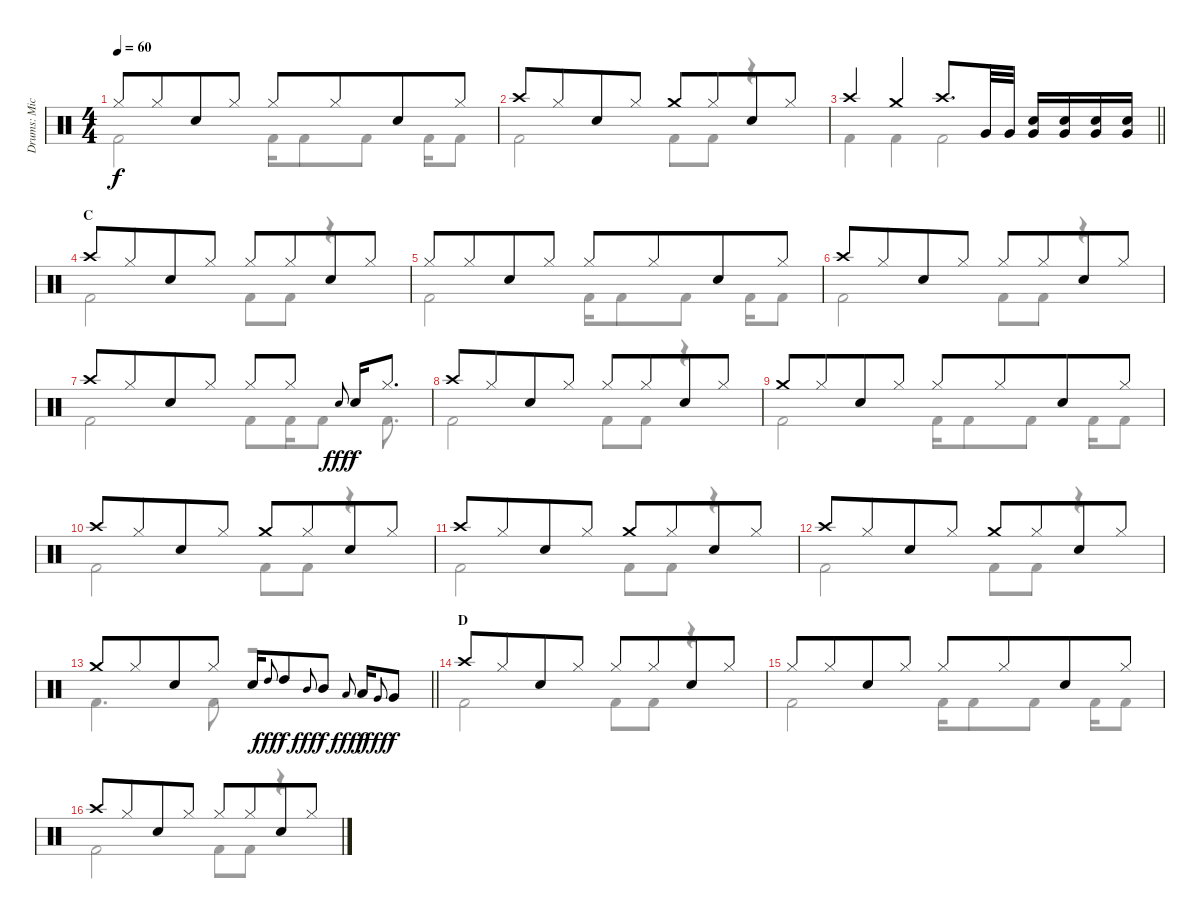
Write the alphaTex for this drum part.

\track ("Drums: Mick" "Drums: Mic") {instrument percussion}
\staff {score}
\articulation defaults
\voice
\ts (4 4)
\tempo 60
\clef neutral
\ks c "Hi-Hat (closed)".8{dy f} "Hi-Hat (closed)".8{beam merge} "Snare (hit) 2".8 "Hi-Hat (closed)".8 "Hi-Hat (closed)".8 "Hi-Hat (closed)".8{beam merge} "Snare (hit) 2".8 "Hi-Hat (closed)".8
|
"Crash high (hit)".8 "Hi-Hat (closed)".8{beam merge} "Snare (hit) 2".8 "Hi-Hat (closed)".8 "Crash medium (hit)".8 "Hi-Hat (closed)".8{beam merge} "Snare (hit) 2".8 "Hi-Hat (closed)".8 |
\barLineRight lightlight "Crash high (hit)".4 "Crash medium (hit)".4{beam merge} "Crash high (hit)".8{d} "Very Low Tom (hit)".32 "Very Low Tom (hit)".32
("Snare (hit) 2" "Very Low Tom (hit)").16 ("Snare (hit) 2" "Very Low Tom (hit)").16 ("Snare (hit) 2" "Very Low Tom (hit)").16 ("Snare (hit) 2" "Very Low Tom (hit)").16 |
\section ("" "C")
"Crash high (hit)".8 "Hi-Hat (closed)".8{beam merge} "Snare (hit) 2".8 "Hi-Hat (closed)".8 "Hi-Hat (closed)".8 "Hi-Hat (closed)".8{beam merge} "Snare (hit) 2".8 "Hi-Hat (closed)".8 |
"Hi-Hat (closed)".8 "Hi-Hat (closed)".8{beam merge} "Snare (hit) 2".8 "Hi-Hat (closed)".8 "Hi-Hat (closed)".8 "Hi-Hat (closed)".8{beam merge} "Snare (hit) 2".8 "Hi-Hat (closed)".8 |
"Crash high (hit)".8 "Hi-Hat (closed)".8{beam merge} "Snare (hit) 2".8 "Hi-Hat (closed)".8 "Hi-Hat (closed)".8 "Hi-Hat (closed)".8{beam merge} "Snare (hit) 2".8 "Hi-Hat (closed)".8 |
"Crash high (hit)".8 "Hi-Hat (closed)".8{beam merge} "Snare (hit) 2".8 "Hi-Hat (closed)".8 "Hi-Hat (closed)".8 "Hi-Hat (closed)".8 "Electric Snare (hit)".8{gr onbeat dy fff beam merge} "Snare (hit) 2".16{dy f} "Hi-Hat (closed)".8{d} |
"Crash high (hit)".8 "Hi-Hat (closed)".8{beam merge} "Snare (hit) 2".8 "Hi-Hat (closed)".8 "Hi-Hat (closed)".8 "Hi-Hat (closed)".8{beam merge} "Snare (hit) 2".8 "Hi-Hat (closed)".8 |
"Crash medium (hit)".8 "Hi-Hat (closed)".8{beam merge} "Snare (hit) 2".8 "Hi-Hat (closed)".8 "Hi-Hat (closed)".8 "Hi-Hat (closed)".8{beam merge} "Snare (hit) 2".8 "Hi-Hat (closed)".8 |
"Crash high (hit)".8 "Hi-Hat (closed)".8{beam merge} "Snare (hit) 2".8 "Hi-Hat (closed)".8 "Crash medium (hit)".8 "Hi-Hat (closed)".8{beam merge} "Snare (hit) 2".8 "Hi-Hat (closed)".8 |
"Crash high (hit)".8 "Hi-Hat (closed)".8{beam merge} "Snare (hit) 2".8 "Hi-Hat (closed)".8 "Crash medium (hit)".8 "Hi-Hat (closed)".8{beam merge} "Snare (hit) 2".8 "Hi-Hat (closed)".8 |
"Crash high (hit)".8 "Hi-Hat (closed)".8{beam merge} "Snare (hit) 2".8 "Hi-Hat (closed)".8 "Crash medium (hit)".8 "Hi-Hat (closed)".8{beam merge} "Snare (hit) 2".8 "Hi-Hat (closed)".8 |
\barLineRight lightlight "Crash medium (hit)".8 "Hi-Hat (closed)".8{beam merge} "Snare (hit) 2".8 "Hi-Hat (closed)".8 "Snare (hit) 2".16 "High Tom (hit)".8{gr onbeat dy fff} "High Tom (hit)".8{dy f} "Mid Tom (hit)".8{gr onbeat dy fff} "Mid Tom (hit)".8{dy f} "Low Tom (hit)".8{gr onbeat dy fff} "Low Tom (hit)".16{dy f} "Very Low Tom (hit)".8{gr onbeat dy fff} "Very Low Tom (hit)".8{dy f}
|
\section ("" "D")
"Crash high (hit)".8 "Hi-Hat (closed)".8{beam merge} "Snare (hit) 2".8 "Hi-Hat (closed)".8 "Hi-Hat (closed)".8 "Hi-Hat (closed)".8{beam merge} "Snare (hit) 2".8 "Hi-Hat (closed)".8 |
"Hi-Hat (closed)".8 "Hi-Hat (closed)".8{beam merge} "Snare (hit) 2".8 "Hi-Hat (closed)".8 "Hi-Hat (closed)".8 "Hi-Hat (closed)".8{beam merge} "Snare (hit) 2".8 "Hi-Hat (closed)".8 |
"Crash high (hit)".8 "Hi-Hat (closed)".8{beam merge} "Snare (hit) 2".8 "Hi-Hat (closed)".8 "Hi-Hat (closed)".8 "Hi-Hat (closed)".8{beam merge} "Snare (hit) 2".8 "Hi-Hat (closed)".8
\voice
\clef neutral
\ottava regular
\simile none
\ks c "Kick (hit) 2".2{dy f} "Kick (hit) 2".16 "Kick (hit) 2".8 "Kick (hit) 2".8 "Kick (hit) 2".16 "Kick (hit) 2".8
|
"Kick (hit) 2".2 "Kick (hit) 2".8 "Kick (hit) 2".8 r.4 |
\barLineRight lightlight "Kick (hit) 2".4 "Kick (hit) 2".4 "Kick (hit) 2".2
|
"Kick (hit) 2".2 "Kick (hit) 2".8 "Kick (hit) 2".8 r.4 |
"Kick (hit) 2".2 "Kick (hit) 2".16 "Kick (hit) 2".8 "Kick (hit) 2".8 "Kick (hit) 2".16 "Kick (hit) 2".8 |
"Kick (hit) 2".2 "Kick (hit) 2".8 "Kick (hit) 2".8 r.4 |
"Kick (hit) 2".2 "Kick (hit) 2".8 "Kick (hit) 2".16 "Kick (hit) 2".8 "Kick (hit) 2".8{d} |
"Kick (hit) 2".2 "Kick (hit) 2".8 "Kick (hit) 2".8 r.4 |
"Kick (hit) 2".2 "Kick (hit) 2".16 "Kick (hit) 2".8 "Kick (hit) 2".8 "Kick (hit) 2".16 "Kick (hit) 2".8 |
"Kick (hit) 2".2 "Kick (hit) 2".8 "Kick (hit) 2".8 r.4 |
"Kick (hit) 2".2 "Kick (hit) 2".8 "Kick (hit) 2".8 r.4 |
"Kick (hit) 2".2 "Kick (hit) 2".8 "Kick (hit) 2".8 r.4 |
\barLineRight lightlight "Kick (hit) 2".4{d} "Kick (hit) 2".8
r.2 |
"Kick (hit) 2".2 "Kick (hit) 2".8 "Kick (hit) 2".8 r.4 |
"Kick (hit) 2".2 "Kick (hit) 2".16 "Kick (hit) 2".8 "Kick (hit) 2".8 "Kick (hit) 2".16 "Kick (hit) 2".8 |
"Kick (hit) 2".2 "Kick (hit) 2".8 "Kick (hit) 2".8 r.4
